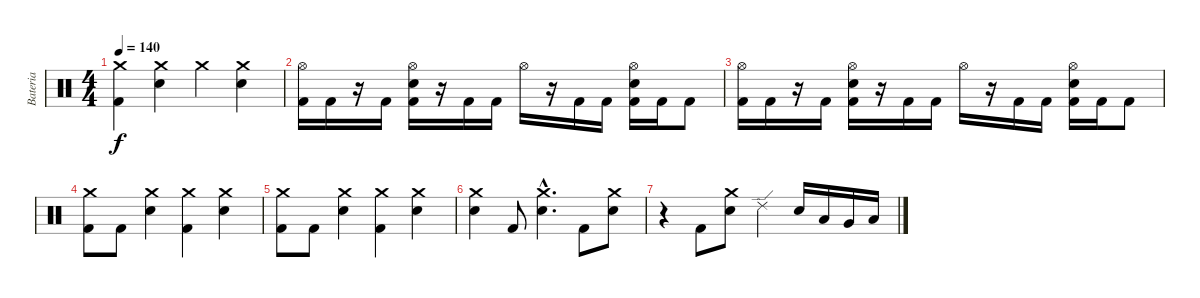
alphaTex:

\track ("Bateria" "Bateria") {instrument percussion}
\staff {score}
\articulation defaults
\ts (4 4)
\tempo 140
\clef neutral
\ks c
("Crash medium (hit)" "Kick (hit) 2").4{dy f} ("Crash medium (hit)" "Electric Snare (hit)").4 "Crash medium (hit)".4 ("Crash medium (hit)" "Electric Snare (hit)").4 |
("Hi-Hat (open)" "Kick (hit) 2").16 "Kick (hit) 2".16 r.16 "Kick (hit) 2".16 ("Hi-Hat (open)" "Electric Snare (hit)" "Kick (hit) 2").16 r.16 "Kick (hit) 2".16 "Kick (hit) 2".16 "Hi-Hat (open)".16 r.16 "Kick (hit) 2".16 "Kick (hit) 2".16 ("Hi-Hat (open)" "Electric Snare (hit)" "Kick (hit) 2").16 "Kick (hit) 2".16 "Kick (hit) 2".8 |
("Hi-Hat (open)" "Kick (hit) 2").16 "Kick (hit) 2".16 r.16 "Kick (hit) 2".16 ("Hi-Hat (open)" "Electric Snare (hit)" "Kick (hit) 2").16 r.16 "Kick (hit) 2".16 "Kick (hit) 2".16 "Hi-Hat (open)".16 r.16 "Kick (hit) 2".16 "Kick (hit) 2".16 ("Hi-Hat (open)" "Electric Snare (hit)" "Kick (hit) 2").16 "Kick (hit) 2".16 "Kick (hit) 2".8 |
("Crash medium (hit)" "Kick (hit) 2").8 "Kick (hit) 2".8 ("Crash medium (hit)" "Electric Snare (hit)").4 ("Crash medium (hit)" "Kick (hit) 2").4 ("Crash medium (hit)" "Electric Snare (hit)").4 |
("Crash medium (hit)" "Kick (hit) 2").8 "Kick (hit) 2".8 ("Crash medium (hit)" "Electric Snare (hit)").4 ("Crash medium (hit)" "Kick (hit) 2").4 ("Crash medium (hit)" "Electric Snare (hit)").4 |
("Crash medium (hit)" "Electric Snare (hit)").4 "Kick (hit) 2".8 ("Crash medium (hit)"{hac} "Electric Snare (hit)"{hac}).4{d} "Kick (hit) 2".8 ("Crash medium (hit)" "Electric Snare (hit)").8 |
r.4 "Kick (hit) 2".8 ("Crash medium (hit)" "Electric Snare (hit)").8 "Ride (edge) 2".4 "Electric Snare (hit)".16 "Low Tom (hit)".16 "Very Low Tom (hit)".16 "Low Floor Tom (hit)".16
